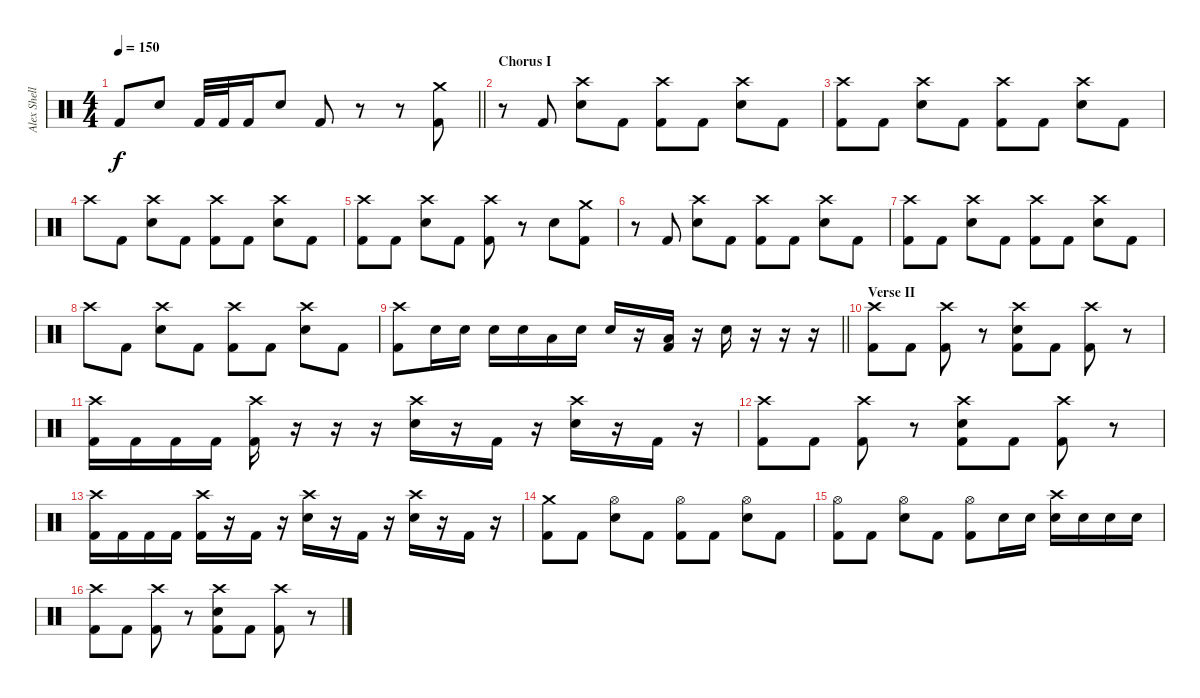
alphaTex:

\track ("Alex Shellnutt" "Alex Shell") {instrument percussion}
\staff {score}
\articulation defaults
\ts (4 4)
\tempo 150
\clef neutral
\barLineRight lightlight
\ks c "Kick (hit) 2".8{dy f} "Snare (hit) 2".8 "Kick (hit) 2".32 "Kick (hit) 2".32 "Kick (hit) 2".16 "Snare (hit) 2".8 "Kick (hit) 2".8
r.8 r.8 ("Crash medium (hit)" "Kick (hit) 2").8 |
\section ("" "Chorus I")
r.8 "Kick (hit) 2".8 ("Crash high (hit)" "Snare (hit) 2").8 "Kick (hit) 2".8 ("Crash high (hit)" "Kick (hit) 2").8 "Kick (hit) 2".8 ("Crash high (hit)" "Snare (hit) 2").8 "Kick (hit) 2".8 |
("Crash high (hit)" "Kick (hit) 2").8 "Kick (hit) 2".8 ("Crash high (hit)" "Snare (hit) 2").8 "Kick (hit) 2".8 ("Crash high (hit)" "Kick (hit) 2").8 "Kick (hit) 2".8 ("Crash high (hit)" "Snare (hit) 2").8 "Kick (hit) 2".8 |
"Crash high (hit)".8 "Kick (hit) 2".8 ("Crash high (hit)" "Snare (hit) 2").8 "Kick (hit) 2".8 ("Crash high (hit)" "Kick (hit) 2").8 "Kick (hit) 2".8 ("Crash high (hit)" "Snare (hit) 2").8 "Kick (hit) 2".8 |
("Crash high (hit)" "Kick (hit) 2").8 "Kick (hit) 2".8 ("Crash high (hit)" "Snare (hit) 2").8 "Kick (hit) 2".8 ("Crash high (hit)" "Kick (hit) 2").8 r.8 "Snare (hit) 2".8 ("Crash medium (hit)" "Kick (hit) 2").8 |
r.8 "Kick (hit) 2".8 ("Crash high (hit)" "Snare (hit) 2").8 "Kick (hit) 2".8 ("Crash high (hit)" "Kick (hit) 2").8 "Kick (hit) 2".8 ("Crash high (hit)" "Snare (hit) 2").8 "Kick (hit) 2".8 |
("Crash high (hit)" "Kick (hit) 2").8 "Kick (hit) 2".8 ("Crash high (hit)" "Snare (hit) 2").8 "Kick (hit) 2".8 ("Crash high (hit)" "Kick (hit) 2").8 "Kick (hit) 2".8 ("Crash high (hit)" "Snare (hit) 2").8 "Kick (hit) 2".8 |
"Crash high (hit)".8 "Kick (hit) 2".8 ("Crash high (hit)" "Snare (hit) 2").8 "Kick (hit) 2".8 ("Crash high (hit)" "Kick (hit) 2").8 "Kick (hit) 2".8 ("Crash high (hit)" "Snare (hit) 2").8 "Kick (hit) 2".8 |
\barLineRight lightlight
("Crash high (hit)" "Kick (hit) 2").8 "Snare (hit) 2".16 "Snare (hit) 2".16 "Snare (hit) 2".16 "Snare (hit) 2".16 "Low Floor Tom (hit)".16 "Snare (hit) 2".16 "Snare (hit) 2".16 r.16 ("Low Floor Tom (hit)" "Kick (hit) 2").16 r.16 "Snare (hit) 2".16 r.16 r.16 r.16 |
\section ("" "Verse II")
("Crash high (hit)" "Kick (hit) 2").8 "Kick (hit) 2".8 ("Crash high (hit)" "Kick (hit) 2").8 r.8 ("Crash high (hit)" "Snare (hit) 2" "Kick (hit) 2").8 "Kick (hit) 2".8 ("Crash high (hit)" "Kick (hit) 2").8 r.8 |
("Crash high (hit)" "Kick (hit) 2").16 "Kick (hit) 2".16 "Kick (hit) 2".16 "Kick (hit) 2".16 ("Crash high (hit)" "Kick (hit) 2").16 r.16 r.16 r.16 ("Crash high (hit)" "Snare (hit) 2").16 r.16 "Kick (hit) 2".16 r.16 ("Crash high (hit)" "Snare (hit) 2").16 r.16 "Kick (hit) 2".16 r.16 |
("Crash high (hit)" "Kick (hit) 2").8 "Kick (hit) 2".8 ("Crash high (hit)" "Kick (hit) 2").8 r.8 ("Crash high (hit)" "Snare (hit) 2" "Kick (hit) 2").8 "Kick (hit) 2".8 ("Crash high (hit)" "Kick (hit) 2").8 r.8 |
("Crash high (hit)" "Kick (hit) 2").16 "Kick (hit) 2".16 "Kick (hit) 2".16 "Kick (hit) 2".16 ("Crash high (hit)" "Kick (hit) 2").16 r.16 "Kick (hit) 2".16 r.16 ("Crash high (hit)" "Snare (hit) 2").16 r.16 "Kick (hit) 2".16 r.16 ("Crash high (hit)" "Snare (hit) 2").16 r.16 "Kick (hit) 2".16 r.16 |
("Crash medium (hit)" "Kick (hit) 2").8 "Kick (hit) 2".8 ("Hi-Hat (open)" "Snare (hit) 2").8 "Kick (hit) 2".8 ("Hi-Hat (open)" "Kick (hit) 2").8 "Kick (hit) 2".8 ("Hi-Hat (open)" "Snare (hit) 2").8 "Kick (hit) 2".8 |
("Hi-Hat (open)" "Kick (hit) 2").8 "Kick (hit) 2".8 ("Hi-Hat (open)" "Snare (hit) 2").8 "Kick (hit) 2".8 ("Hi-Hat (open)" "Kick (hit) 2").8 "Snare (hit) 2".16 "Snare (hit) 2".16 ("Crash high (hit)" "Snare (hit) 2").16 "Snare (hit) 2".16 "Snare (hit) 2".16 "Snare (hit) 2".16 |
("Crash high (hit)" "Kick (hit) 2").8 "Kick (hit) 2".8 ("Crash high (hit)" "Kick (hit) 2").8 r.8 ("Crash high (hit)" "Snare (hit) 2" "Kick (hit) 2").8 "Kick (hit) 2".8 ("Crash high (hit)" "Kick (hit) 2").8 r.8
